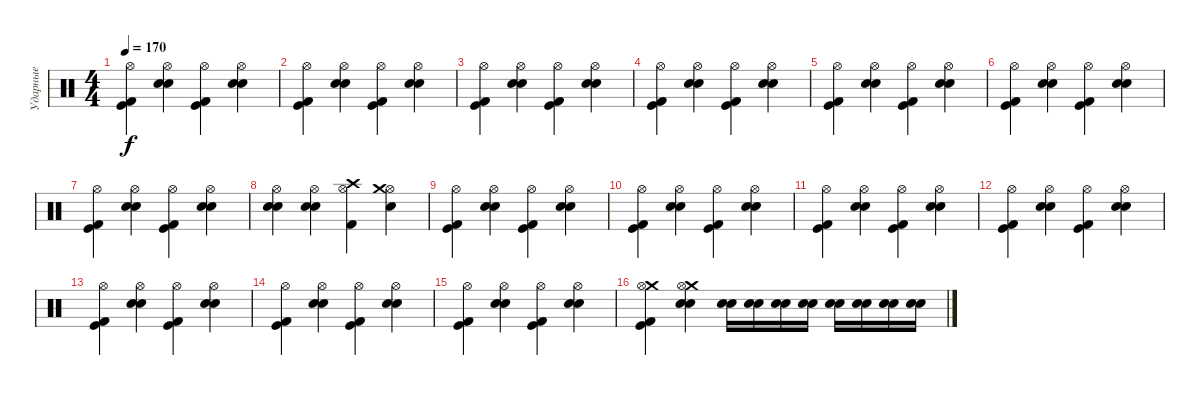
\track ("Ударные" "Ударные") {instrument percussion}
\staff {score}
\articulation defaults
\ts (4 4)
\tempo 170
\clef neutral
\ks c
("Hi-Hat (open)" "Kick (hit)" "Kick (hit) 2").4{dy f} ("Hi-Hat (open)" "Electric Snare (hit)" "Snare (hit) 2").4 ("Hi-Hat (open)" "Kick (hit)" "Kick (hit) 2").4 ("Hi-Hat (open)" "Electric Snare (hit)" "Snare (hit) 2").4 |
("Hi-Hat (open)" "Kick (hit)" "Kick (hit) 2").4 ("Hi-Hat (open)" "Electric Snare (hit)" "Snare (hit) 2").4 ("Hi-Hat (open)" "Kick (hit)" "Kick (hit) 2").4 ("Hi-Hat (open)" "Electric Snare (hit)" "Snare (hit) 2").4 |
("Hi-Hat (open)" "Kick (hit)" "Kick (hit) 2").4 ("Hi-Hat (open)" "Electric Snare (hit)" "Snare (hit) 2").4 ("Hi-Hat (open)" "Kick (hit)" "Kick (hit) 2").4 ("Hi-Hat (open)" "Electric Snare (hit)" "Snare (hit) 2").4 |
("Hi-Hat (open)" "Kick (hit)" "Kick (hit) 2").4 ("Hi-Hat (open)" "Electric Snare (hit)" "Snare (hit) 2").4 ("Hi-Hat (open)" "Kick (hit)" "Kick (hit) 2").4 ("Hi-Hat (open)" "Electric Snare (hit)" "Snare (hit) 2").4 |
("Hi-Hat (open)" "Kick (hit)" "Kick (hit) 2").4 ("Hi-Hat (open)" "Electric Snare (hit)" "Snare (hit) 2").4 ("Hi-Hat (open)" "Kick (hit)" "Kick (hit) 2").4 ("Hi-Hat (open)" "Electric Snare (hit)" "Snare (hit) 2").4 |
("Hi-Hat (open)" "Kick (hit)" "Kick (hit) 2").4 ("Hi-Hat (open)" "Electric Snare (hit)" "Snare (hit) 2").4 ("Hi-Hat (open)" "Kick (hit)" "Kick (hit) 2").4 ("Hi-Hat (open)" "Electric Snare (hit)" "Snare (hit) 2").4 |
("Hi-Hat (open)" "Kick (hit)" "Kick (hit) 2").4 ("Hi-Hat (open)" "Electric Snare (hit)" "Snare (hit) 2").4 ("Hi-Hat (open)" "Kick (hit)" "Kick (hit) 2").4 ("Hi-Hat (open)" "Electric Snare (hit)" "Snare (hit) 2").4 |
("Hi-Hat (open)" "Electric Snare (hit)" "Snare (hit) 2").4 ("Hi-Hat (open)" "Electric Snare (hit)" "Snare (hit) 2").4 ("Hi-Hat (open)" "Crash high (hit)" "Kick (hit) 2").4 ("Hi-Hat (open)" "Crash medium (hit)" "Snare (hit) 2").4 |
("Hi-Hat (open)" "Kick (hit)" "Kick (hit) 2").4 ("Hi-Hat (open)" "Electric Snare (hit)" "Snare (hit) 2").4 ("Hi-Hat (open)" "Kick (hit)" "Kick (hit) 2").4 ("Hi-Hat (open)" "Electric Snare (hit)" "Snare (hit) 2").4 |
("Hi-Hat (open)" "Kick (hit)" "Kick (hit) 2").4 ("Hi-Hat (open)" "Electric Snare (hit)" "Snare (hit) 2").4 ("Hi-Hat (open)" "Kick (hit)" "Kick (hit) 2").4 ("Hi-Hat (open)" "Electric Snare (hit)" "Snare (hit) 2").4 |
("Hi-Hat (open)" "Kick (hit)" "Kick (hit) 2").4 ("Hi-Hat (open)" "Electric Snare (hit)" "Snare (hit) 2").4 ("Hi-Hat (open)" "Kick (hit)" "Kick (hit) 2").4 ("Hi-Hat (open)" "Electric Snare (hit)" "Snare (hit) 2").4 |
("Hi-Hat (open)" "Kick (hit)" "Kick (hit) 2").4 ("Hi-Hat (open)" "Electric Snare (hit)" "Snare (hit) 2").4 ("Hi-Hat (open)" "Kick (hit)" "Kick (hit) 2").4 ("Hi-Hat (open)" "Electric Snare (hit)" "Snare (hit) 2").4 |
("Hi-Hat (open)" "Kick (hit)" "Kick (hit) 2").4 ("Hi-Hat (open)" "Electric Snare (hit)" "Snare (hit) 2").4 ("Hi-Hat (open)" "Kick (hit)" "Kick (hit) 2").4 ("Hi-Hat (open)" "Electric Snare (hit)" "Snare (hit) 2").4 |
("Hi-Hat (open)" "Kick (hit)" "Kick (hit) 2").4 ("Hi-Hat (open)" "Electric Snare (hit)" "Snare (hit) 2").4 ("Hi-Hat (open)" "Kick (hit)" "Kick (hit) 2").4 ("Hi-Hat (open)" "Electric Snare (hit)" "Snare (hit) 2").4 |
("Hi-Hat (open)" "Kick (hit)" "Kick (hit) 2").4 ("Hi-Hat (open)" "Electric Snare (hit)" "Snare (hit) 2").4 ("Hi-Hat (open)" "Kick (hit)" "Kick (hit) 2").4 ("Hi-Hat (open)" "Electric Snare (hit)" "Snare (hit) 2").4 |
("Crash medium (hit)" "Hi-Hat (open)" "Kick (hit)" "Kick (hit) 2").4 ("Crash medium (hit)" "Hi-Hat (open)" "Electric Snare (hit)" "Snare (hit) 2").4 ("Snare (hit) 2" "Electric Snare (hit)").16 ("Snare (hit) 2" "Electric Snare (hit)").16 ("Snare (hit) 2" "Electric Snare (hit)").16 ("Snare (hit) 2" "Electric Snare (hit)").16 ("Snare (hit) 2" "Electric Snare (hit)").16 ("Snare (hit) 2" "Electric Snare (hit)").16 ("Snare (hit) 2" "Electric Snare (hit)").16 ("Snare (hit) 2" "Electric Snare (hit)").16
